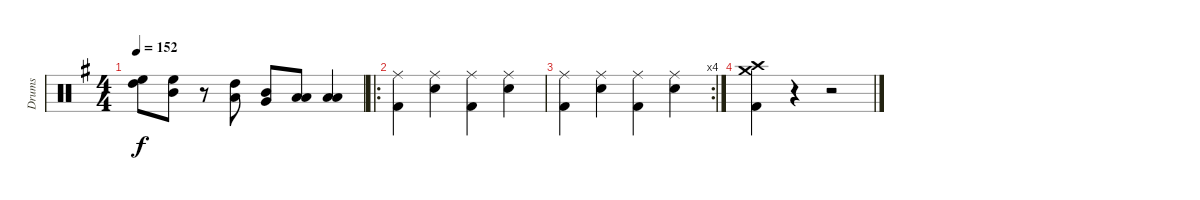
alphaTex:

\track ("Drums" "Drums") {instrument percussion}
\staff {score}
\articulation defaults
\ts (4 4)
\tempo 152
\clef neutral
\ks g
("High Tom (hit)" "High Floor Tom (hit)").8{dy f} ("Mid Tom (hit)" "High Floor Tom (hit)").8 r.8 ("Low Tom (hit)" "High Tom (hit)").8 ("Very Low Tom (hit)" "Mid Tom (hit)").8 ("Low Floor Tom (hit)" "Low Tom (hit)").8 ("Low Floor Tom (hit)" "Low Tom (hit)").4 |
\ro
("Ride (middle)" "Kick (hit) 2").4 ("Ride (middle)" "Snare (hit) 2").4 ("Ride (middle)" "Kick (hit) 2").4 ("Ride (middle)" "Snare (hit) 2").4 |
\rc 4
("Ride (middle)" "Kick (hit) 2").4 ("Ride (middle)" "Snare (hit) 2").4 ("Ride (middle)" "Kick (hit) 2").4 ("Ride (middle)" "Snare (hit) 2").4 |
("Crash high (hit)" "Crash medium (hit)" "Kick (hit) 2").4 r.4 r.2
